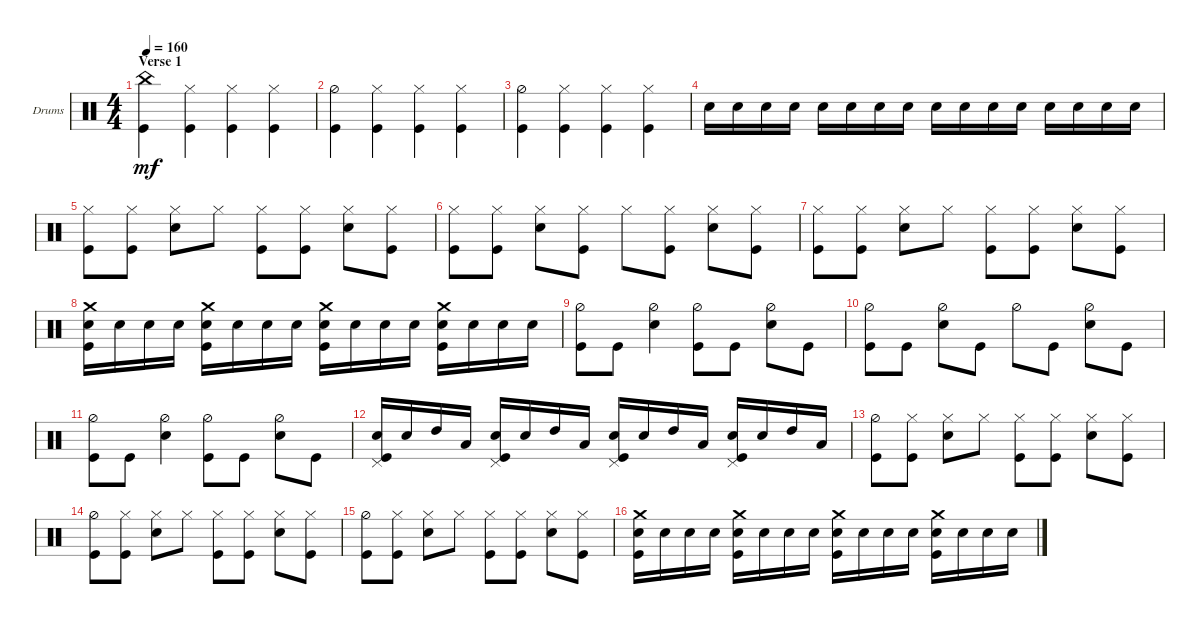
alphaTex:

\defaultSystemsLayout 4
\bracketExtendMode groupsimilarinstruments
\firstSystemTrackNameOrientation horizontal
\otherSystemsTrackNameOrientation horizontal
\track ("Drumkit" "Drums") {instrument percussion}
\staff {score}
\articulation defaults
\ts (4 4)
\section ("" "Verse 1")
\tempo 160
\clef neutral
\scale
0.474178
\ks c
("Kick (hit)" "China (hit)").4{dy mf} ("Kick (hit)" "Hi-Hat (closed)").4 ("Kick (hit)" "Hi-Hat (closed)").4 ("Kick (hit)" "Hi-Hat (closed)").4 |
\scale
0.262911 ("Hi-Hat (half)" "Kick (hit)").4 ("Kick (hit)" "Hi-Hat (closed)").4 ("Kick (hit)" "Hi-Hat (closed)").4 ("Kick (hit)" "Hi-Hat (closed)").4 |
\scale
0.262911 ("Hi-Hat (half)" "Kick (hit)").4 ("Kick (hit)" "Hi-Hat (closed)").4 ("Kick (hit)" "Hi-Hat (closed)").4 ("Kick (hit)" "Hi-Hat (closed)").4 |
\scale
0.333333 "Snare (hit) 2".16 "Snare (hit) 2".16 "Snare (hit) 2".16 "Snare (hit) 2".16 "Snare (hit) 2".16 "Snare (hit) 2".16 "Snare (hit) 2".16 "Snare (hit) 2".16 "Snare (hit) 2".16 "Snare (hit) 2".16 "Snare (hit) 2".16 "Snare (hit) 2".16 "Snare (hit) 2".16 "Snare (hit) 2".16 "Snare (hit) 2".16 "Snare (hit) 2".16 |
\scale
0.333333 ("Kick (hit)" "Hi-Hat (closed)").8 ("Hi-Hat (closed)" "Kick (hit)").8 ("Snare (hit) 2" "Hi-Hat (closed)").8 "Hi-Hat (closed)".8 ("Hi-Hat (closed)" "Kick (hit)").8 ("Kick (hit)" "Hi-Hat (closed)").8 ("Hi-Hat (closed)" "Snare (hit) 2").8 ("Hi-Hat (closed)" "Kick (hit)").8 |
\scale
0.333333 ("Kick (hit)" "Hi-Hat (closed)").8 ("Hi-Hat (closed)" "Kick (hit)").8 ("Snare (hit) 2" "Hi-Hat (closed)").8 ("Hi-Hat (closed)" "Kick (hit)").8 "Hi-Hat (closed)".8 ("Kick (hit)" "Hi-Hat (closed)").8 ("Hi-Hat (closed)" "Snare (hit) 2").8 ("Hi-Hat (closed)" "Kick (hit)").8 |
\scale
0.333333 ("Kick (hit)" "Hi-Hat (closed)").8 ("Hi-Hat (closed)" "Kick (hit)").8 ("Snare (hit) 2" "Hi-Hat (closed)").8 "Hi-Hat (closed)".8 ("Hi-Hat (closed)" "Kick (hit)").8 ("Kick (hit)" "Hi-Hat (closed)").8 ("Hi-Hat (closed)" "Snare (hit) 2").8 ("Hi-Hat (closed)" "Kick (hit)").8 |
\scale
0.333333 ("Crash medium (hit)" "Kick (hit)" "Snare (hit) 2").16 "Snare (hit) 2".16 "Snare (hit) 2".16 "Snare (hit) 2".16 ("Snare (hit) 2" "Crash medium (hit)" "Kick (hit)").16 "Snare (hit) 2".16 "Snare (hit) 2".16 "Snare (hit) 2".16 ("Snare (hit) 2" "Kick (hit)" "Crash medium (hit)").16 "Snare (hit) 2".16 "Snare (hit) 2".16 "Snare (hit) 2".16 ("Snare (hit) 2" "Crash medium (hit)" "Kick (hit)").16 "Snare (hit) 2".16 "Snare (hit) 2".16 "Snare (hit) 2".16 |
\scale
0.333333 ("Kick (hit)" "Hi-Hat (half)").8 "Kick (hit)".8 ("Snare (hit) 2" "Hi-Hat (half)").4 ("Hi-Hat (half)" "Kick (hit)").8 "Kick (hit)".8 ("Snare (hit) 2" "Hi-Hat (half)").8 "Kick (hit)".8 |
\scale
0.333333 ("Kick (hit)" "Hi-Hat (half)").8 "Kick (hit)".8 ("Snare (hit) 2" "Hi-Hat (half)").8 "Kick (hit)".8 "Hi-Hat (half)".8 "Kick (hit)".8 ("Hi-Hat (half)" "Snare (hit) 2").8 "Kick (hit)".8 |
\scale
0.333333 ("Kick (hit)" "Hi-Hat (half)").8 "Kick (hit)".8 ("Snare (hit) 2" "Hi-Hat (half)").4 ("Hi-Hat (half)" "Kick (hit)").8 "Kick (hit)".8 ("Snare (hit) 2" "Hi-Hat (half)").8 "Kick (hit)".8 |
\scale
0.333333 ("Snare (hit) 2" "Kick (hit)" "Pedal Hi-Hat (hit)").16 "Snare (hit) 2".16 "High Tom (hit)".16 "Low Tom (hit)".16 ("Snare (hit) 2" "Kick (hit)" "Pedal Hi-Hat (hit)").16 "Snare (hit) 2".16 "High Tom (hit)".16 "Low Tom (hit)".16 ("Snare (hit) 2" "Kick (hit)" "Pedal Hi-Hat (hit)").16 "Snare (hit) 2".16 "High Tom (hit)".16 "Low Tom (hit)".16 ("Snare (hit) 2" "Kick (hit)" "Pedal Hi-Hat (hit)").16 "Snare (hit) 2".16 "High Tom (hit)".16 "Low Tom (hit)".16 |
\scale
0.333333 ("Kick (hit)" "Hi-Hat (half)").8 ("Hi-Hat (closed)" "Kick (hit)").8 ("Snare (hit) 2" "Hi-Hat (closed)").8 "Hi-Hat (closed)".8 ("Hi-Hat (closed)" "Kick (hit)").8 ("Kick (hit)" "Hi-Hat (closed)").8 ("Hi-Hat (closed)" "Snare (hit) 2").8 ("Hi-Hat (closed)" "Kick (hit)").8 |
\scale
0.333333 ("Kick (hit)" "Hi-Hat (half)").8 ("Hi-Hat (closed)" "Kick (hit)").8 ("Snare (hit) 2" "Hi-Hat (closed)").8 "Hi-Hat (closed)".8 ("Hi-Hat (closed)" "Kick (hit)").8 ("Kick (hit)" "Hi-Hat (closed)").8 ("Hi-Hat (closed)" "Snare (hit) 2").8 ("Hi-Hat (closed)" "Kick (hit)").8 |
\scale
0.333333 ("Kick (hit)" "Hi-Hat (half)").8 ("Hi-Hat (closed)" "Kick (hit)").8 ("Snare (hit) 2" "Hi-Hat (closed)").8 "Hi-Hat (closed)".8 ("Hi-Hat (closed)" "Kick (hit)").8 ("Kick (hit)" "Hi-Hat (closed)").8 ("Hi-Hat (closed)" "Snare (hit) 2").8 ("Hi-Hat (closed)" "Kick (hit)").8 |
\scale
0.301075 ("Crash medium (hit)" "Kick (hit)" "Snare (hit) 2").16 "Snare (hit) 2".16 "Snare (hit) 2".16 "Snare (hit) 2".16 ("Snare (hit) 2" "Crash medium (hit)" "Kick (hit)").16 "Snare (hit) 2".16 "Snare (hit) 2".16 "Snare (hit) 2".16 ("Snare (hit) 2" "Kick (hit)" "Crash medium (hit)").16 "Snare (hit) 2".16 "Snare (hit) 2".16 "Snare (hit) 2".16 ("Snare (hit) 2" "Crash medium (hit)" "Kick (hit)").16 "Snare (hit) 2".16 "Snare (hit) 2".16 "Snare (hit) 2".16
